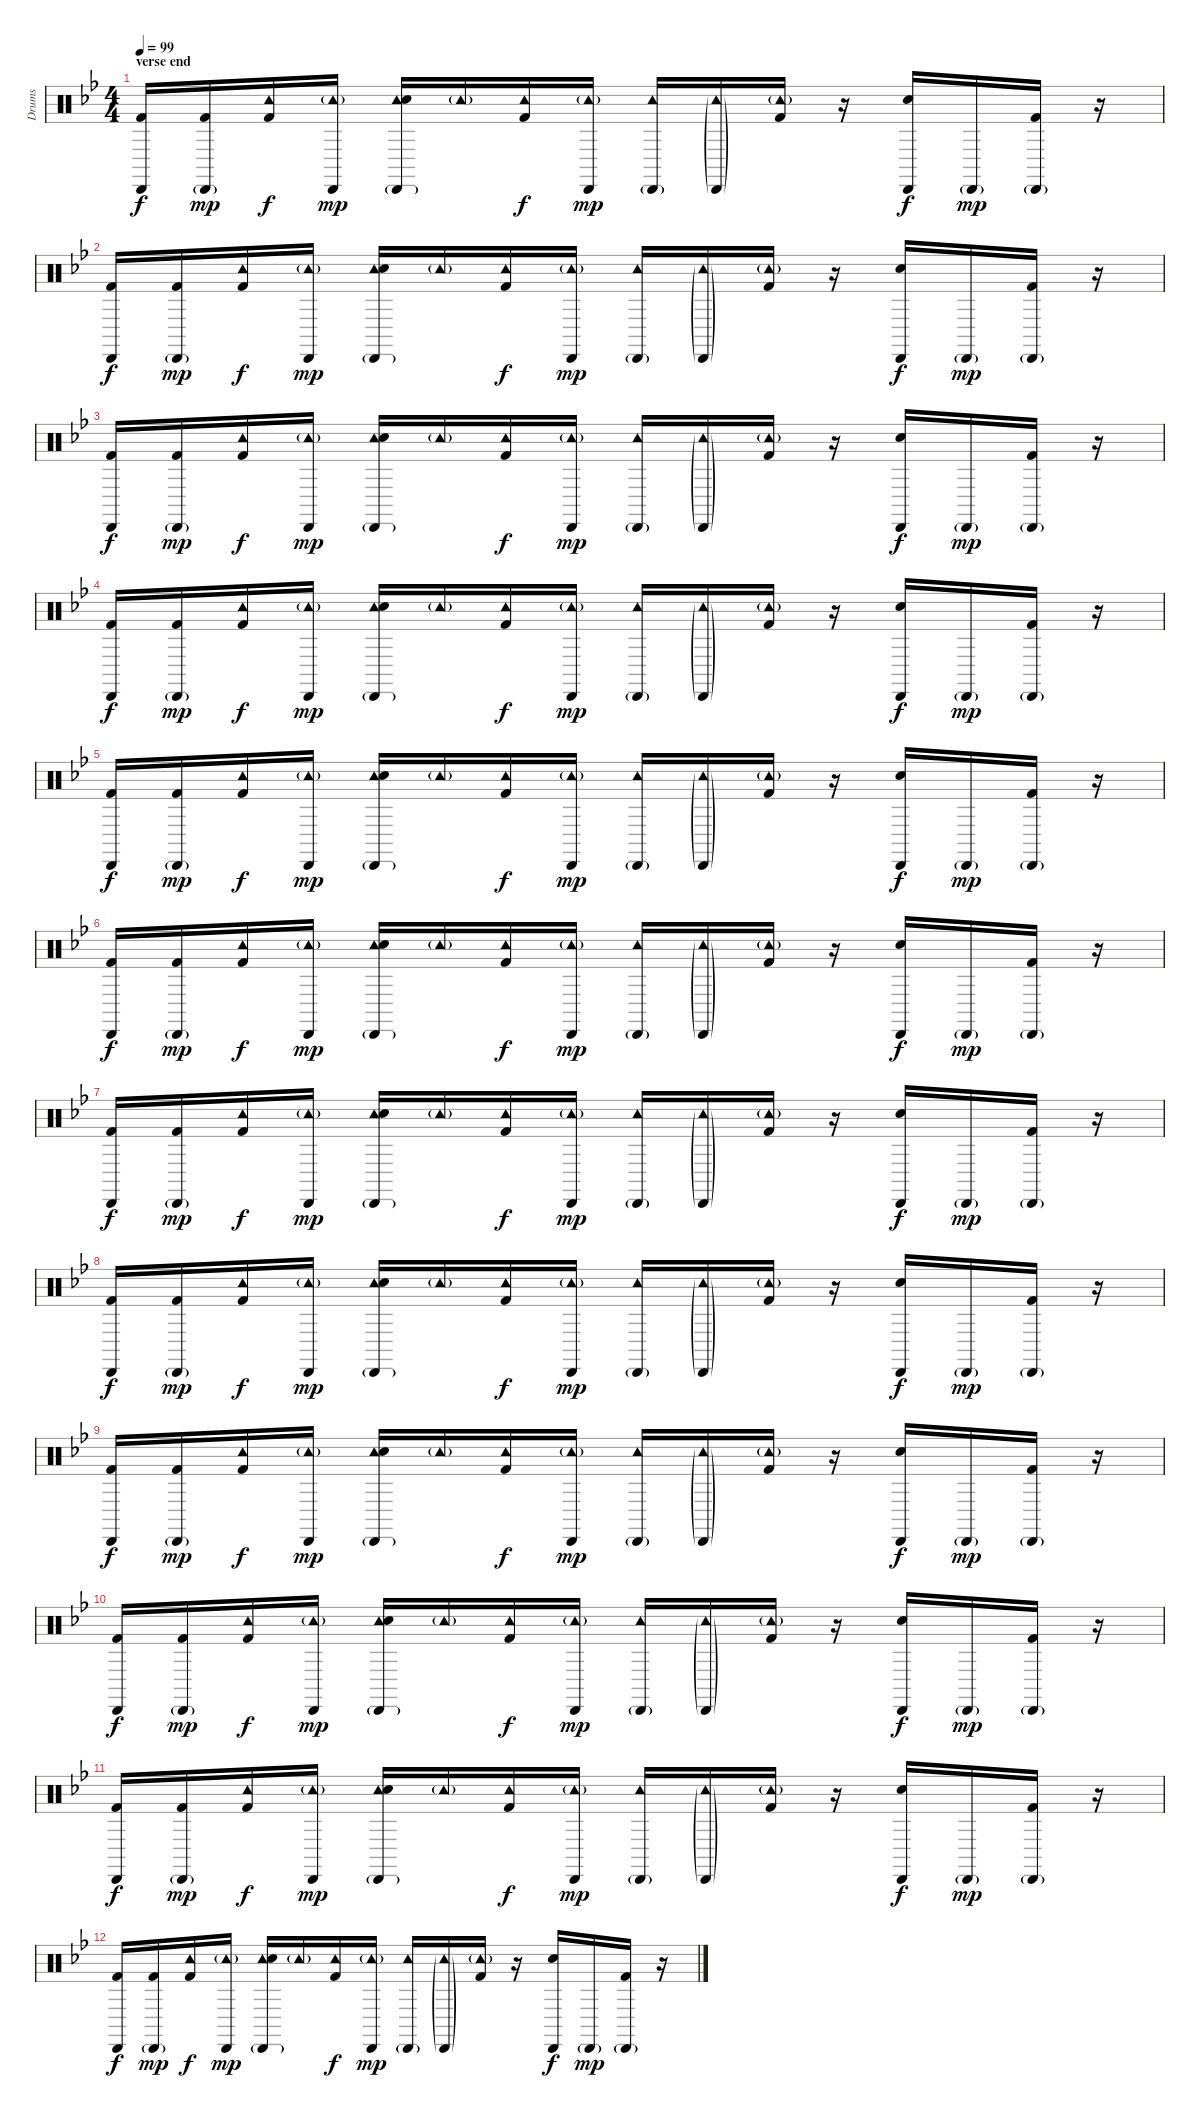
\track ("Drums" "Drums") {instrument percussion}
\staff {score}
\articulation defaults
\ts (4 4)
\section ("" "verse end")
\tempo 99
\clef neutral
\ks bb
("Cabasa (hit)" "Kick (hit) 2").16{dy f} ("Cabasa (hit)"{g} "Kick (hit) 2").16{dy mp} ("Tambourine (hit)" "Kick (hit) 2").16{dy f} ("Cabasa (hit)" "Tambourine (hit)"{g}).16{dy mp} ("Cabasa (hit)"{g} "Tambourine (hit)" "Snare (hit) 2").16 "Tambourine (hit)"{g}.16 ("Tambourine (hit)" "Kick (hit) 2").16{dy f} ("Cabasa (hit)" "Tambourine (hit)"{g}).16{dy mp} ("Cabasa (hit)"{g} "Tambourine (hit)").16 ("Cabasa (hit)"{g} "Tambourine (hit)"{g}).16 ("Tambourine (hit)"{g} "Kick (hit) 2").16 r.16 ("Cabasa (hit)" "Snare (hit) 2").16{dy f} "Cabasa (hit)"{g}.16{dy mp} ("Cabasa (hit)"{g} "Kick (hit) 2").16 r.16 |
("Cabasa (hit)" "Kick (hit) 2").16{dy f} ("Cabasa (hit)"{g} "Kick (hit) 2").16{dy mp} ("Tambourine (hit)" "Kick (hit) 2").16{dy f} ("Cabasa (hit)" "Tambourine (hit)"{g}).16{dy mp} ("Cabasa (hit)"{g} "Tambourine (hit)" "Snare (hit) 2").16 "Tambourine (hit)"{g}.16 ("Tambourine (hit)" "Kick (hit) 2").16{dy f} ("Cabasa (hit)" "Tambourine (hit)"{g}).16{dy mp} ("Cabasa (hit)"{g} "Tambourine (hit)").16 ("Cabasa (hit)"{g} "Tambourine (hit)"{g}).16 ("Tambourine (hit)"{g} "Kick (hit) 2").16 r.16 ("Cabasa (hit)" "Snare (hit) 2").16{dy f} "Cabasa (hit)"{g}.16{dy mp} ("Cabasa (hit)"{g} "Kick (hit) 2").16 r.16 |
("Cabasa (hit)" "Kick (hit) 2").16{dy f} ("Cabasa (hit)"{g} "Kick (hit) 2").16{dy mp} ("Tambourine (hit)" "Kick (hit) 2").16{dy f} ("Cabasa (hit)" "Tambourine (hit)"{g}).16{dy mp} ("Cabasa (hit)"{g} "Tambourine (hit)" "Snare (hit) 2").16 "Tambourine (hit)"{g}.16 ("Tambourine (hit)" "Kick (hit) 2").16{dy f} ("Cabasa (hit)" "Tambourine (hit)"{g}).16{dy mp} ("Cabasa (hit)"{g} "Tambourine (hit)").16 ("Cabasa (hit)"{g} "Tambourine (hit)"{g}).16 ("Tambourine (hit)"{g} "Kick (hit) 2").16 r.16 ("Cabasa (hit)" "Snare (hit) 2").16{dy f} "Cabasa (hit)"{g}.16{dy mp} ("Cabasa (hit)"{g} "Kick (hit) 2").16 r.16 |
("Cabasa (hit)" "Kick (hit) 2").16{dy f} ("Cabasa (hit)"{g} "Kick (hit) 2").16{dy mp} ("Tambourine (hit)" "Kick (hit) 2").16{dy f} ("Cabasa (hit)" "Tambourine (hit)"{g}).16{dy mp} ("Cabasa (hit)"{g} "Tambourine (hit)" "Snare (hit) 2").16 "Tambourine (hit)"{g}.16 ("Tambourine (hit)" "Kick (hit) 2").16{dy f} ("Cabasa (hit)" "Tambourine (hit)"{g}).16{dy mp} ("Cabasa (hit)"{g} "Tambourine (hit)").16 ("Cabasa (hit)"{g} "Tambourine (hit)"{g}).16 ("Tambourine (hit)"{g} "Kick (hit) 2").16 r.16 ("Cabasa (hit)" "Snare (hit) 2").16{dy f} "Cabasa (hit)"{g}.16{dy mp} ("Cabasa (hit)"{g} "Kick (hit) 2").16 r.16 |
("Cabasa (hit)" "Kick (hit) 2").16{dy f} ("Cabasa (hit)"{g} "Kick (hit) 2").16{dy mp} ("Tambourine (hit)" "Kick (hit) 2").16{dy f} ("Cabasa (hit)" "Tambourine (hit)"{g}).16{dy mp} ("Cabasa (hit)"{g} "Tambourine (hit)" "Snare (hit) 2").16 "Tambourine (hit)"{g}.16 ("Tambourine (hit)" "Kick (hit) 2").16{dy f} ("Cabasa (hit)" "Tambourine (hit)"{g}).16{dy mp} ("Cabasa (hit)"{g} "Tambourine (hit)").16 ("Cabasa (hit)"{g} "Tambourine (hit)"{g}).16 ("Tambourine (hit)"{g} "Kick (hit) 2").16 r.16 ("Cabasa (hit)" "Snare (hit) 2").16{dy f} "Cabasa (hit)"{g}.16{dy mp} ("Cabasa (hit)"{g} "Kick (hit) 2").16 r.16 |
("Cabasa (hit)" "Kick (hit) 2").16{dy f} ("Cabasa (hit)"{g} "Kick (hit) 2").16{dy mp} ("Tambourine (hit)" "Kick (hit) 2").16{dy f} ("Cabasa (hit)" "Tambourine (hit)"{g}).16{dy mp} ("Cabasa (hit)"{g} "Tambourine (hit)" "Snare (hit) 2").16 "Tambourine (hit)"{g}.16 ("Tambourine (hit)" "Kick (hit) 2").16{dy f} ("Cabasa (hit)" "Tambourine (hit)"{g}).16{dy mp} ("Cabasa (hit)"{g} "Tambourine (hit)").16 ("Cabasa (hit)"{g} "Tambourine (hit)"{g}).16 ("Tambourine (hit)"{g} "Kick (hit) 2").16 r.16 ("Cabasa (hit)" "Snare (hit) 2").16{dy f} "Cabasa (hit)"{g}.16{dy mp} ("Cabasa (hit)"{g} "Kick (hit) 2").16 r.16 |
("Cabasa (hit)" "Kick (hit) 2").16{dy f} ("Cabasa (hit)"{g} "Kick (hit) 2").16{dy mp} ("Tambourine (hit)" "Kick (hit) 2").16{dy f} ("Cabasa (hit)" "Tambourine (hit)"{g}).16{dy mp} ("Cabasa (hit)"{g} "Tambourine (hit)" "Snare (hit) 2").16 "Tambourine (hit)"{g}.16 ("Tambourine (hit)" "Kick (hit) 2").16{dy f} ("Cabasa (hit)" "Tambourine (hit)"{g}).16{dy mp} ("Cabasa (hit)"{g} "Tambourine (hit)").16 ("Cabasa (hit)"{g} "Tambourine (hit)"{g}).16 ("Tambourine (hit)"{g} "Kick (hit) 2").16 r.16 ("Cabasa (hit)" "Snare (hit) 2").16{dy f} "Cabasa (hit)"{g}.16{dy mp} ("Cabasa (hit)"{g} "Kick (hit) 2").16 r.16 |
("Cabasa (hit)" "Kick (hit) 2").16{dy f} ("Cabasa (hit)"{g} "Kick (hit) 2").16{dy mp} ("Tambourine (hit)" "Kick (hit) 2").16{dy f} ("Cabasa (hit)" "Tambourine (hit)"{g}).16{dy mp} ("Cabasa (hit)"{g} "Tambourine (hit)" "Snare (hit) 2").16 "Tambourine (hit)"{g}.16 ("Tambourine (hit)" "Kick (hit) 2").16{dy f} ("Cabasa (hit)" "Tambourine (hit)"{g}).16{dy mp} ("Cabasa (hit)"{g} "Tambourine (hit)").16 ("Cabasa (hit)"{g} "Tambourine (hit)"{g}).16 ("Tambourine (hit)"{g} "Kick (hit) 2").16 r.16 ("Cabasa (hit)" "Snare (hit) 2").16{dy f} "Cabasa (hit)"{g}.16{dy mp} ("Cabasa (hit)"{g} "Kick (hit) 2").16 r.16 |
("Cabasa (hit)" "Kick (hit) 2").16{dy f} ("Cabasa (hit)"{g} "Kick (hit) 2").16{dy mp} ("Tambourine (hit)" "Kick (hit) 2").16{dy f} ("Cabasa (hit)" "Tambourine (hit)"{g}).16{dy mp} ("Cabasa (hit)"{g} "Tambourine (hit)" "Snare (hit) 2").16 "Tambourine (hit)"{g}.16 ("Tambourine (hit)" "Kick (hit) 2").16{dy f} ("Cabasa (hit)" "Tambourine (hit)"{g}).16{dy mp} ("Cabasa (hit)"{g} "Tambourine (hit)").16 ("Cabasa (hit)"{g} "Tambourine (hit)"{g}).16 ("Tambourine (hit)"{g} "Kick (hit) 2").16 r.16 ("Cabasa (hit)" "Snare (hit) 2").16{dy f} "Cabasa (hit)"{g}.16{dy mp} ("Cabasa (hit)"{g} "Kick (hit) 2").16 r.16 |
("Cabasa (hit)" "Kick (hit) 2").16{dy f} ("Cabasa (hit)"{g} "Kick (hit) 2").16{dy mp} ("Tambourine (hit)" "Kick (hit) 2").16{dy f} ("Cabasa (hit)" "Tambourine (hit)"{g}).16{dy mp} ("Cabasa (hit)"{g} "Tambourine (hit)" "Snare (hit) 2").16 "Tambourine (hit)"{g}.16 ("Tambourine (hit)" "Kick (hit) 2").16{dy f} ("Cabasa (hit)" "Tambourine (hit)"{g}).16{dy mp} ("Cabasa (hit)"{g} "Tambourine (hit)").16 ("Cabasa (hit)"{g} "Tambourine (hit)"{g}).16 ("Tambourine (hit)"{g} "Kick (hit) 2").16 r.16 ("Cabasa (hit)" "Snare (hit) 2").16{dy f} "Cabasa (hit)"{g}.16{dy mp} ("Cabasa (hit)"{g} "Kick (hit) 2").16 r.16 |
("Cabasa (hit)" "Kick (hit) 2").16{dy f} ("Cabasa (hit)"{g} "Kick (hit) 2").16{dy mp} ("Tambourine (hit)" "Kick (hit) 2").16{dy f} ("Cabasa (hit)" "Tambourine (hit)"{g}).16{dy mp} ("Cabasa (hit)"{g} "Tambourine (hit)" "Snare (hit) 2").16 "Tambourine (hit)"{g}.16 ("Tambourine (hit)" "Kick (hit) 2").16{dy f} ("Cabasa (hit)" "Tambourine (hit)"{g}).16{dy mp} ("Cabasa (hit)"{g} "Tambourine (hit)").16 ("Cabasa (hit)"{g} "Tambourine (hit)"{g}).16 ("Tambourine (hit)"{g} "Kick (hit) 2").16 r.16 ("Cabasa (hit)" "Snare (hit) 2").16{dy f} "Cabasa (hit)"{g}.16{dy mp} ("Cabasa (hit)"{g} "Kick (hit) 2").16 r.16 |
("Cabasa (hit)" "Kick (hit) 2").16{dy f} ("Cabasa (hit)"{g} "Kick (hit) 2").16{dy mp} ("Tambourine (hit)" "Kick (hit) 2").16{dy f} ("Cabasa (hit)" "Tambourine (hit)"{g}).16{dy mp} ("Cabasa (hit)"{g} "Tambourine (hit)" "Snare (hit) 2").16 "Tambourine (hit)"{g}.16 ("Tambourine (hit)" "Kick (hit) 2").16{dy f} ("Cabasa (hit)" "Tambourine (hit)"{g}).16{dy mp} ("Cabasa (hit)"{g} "Tambourine (hit)").16 ("Cabasa (hit)"{g} "Tambourine (hit)"{g}).16 ("Tambourine (hit)"{g} "Kick (hit) 2").16 r.16 ("Cabasa (hit)" "Snare (hit) 2").16{dy f} "Cabasa (hit)"{g}.16{dy mp} ("Cabasa (hit)"{g} "Kick (hit) 2").16 r.16
